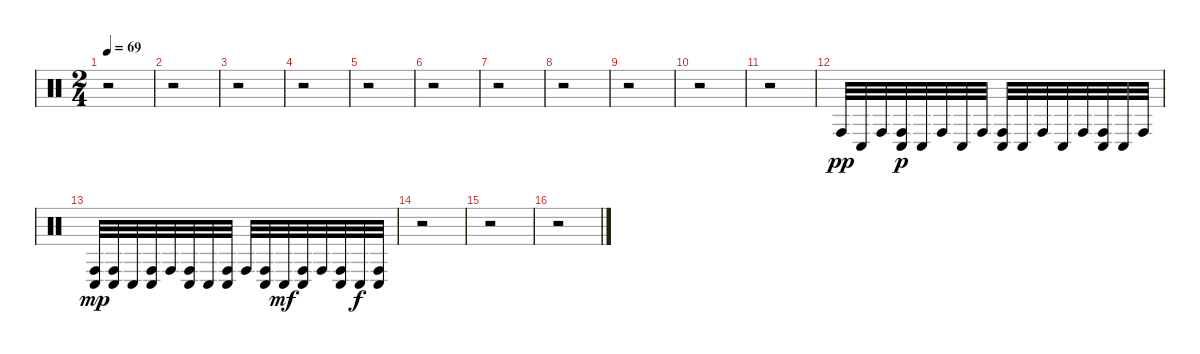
\track "" {instrument percussion}
\staff {score}
\articulation defaults
\ts (2 4)
\tempo 69
\clef neutral
\ks c
r.2{dy f} |
r.2 |
r.2 |
r.2 |
r.2 |
r.2 |
r.2 |
r.2 |
r.2 |
r.2 |
r.2 |
"Conga high (hit)".32{dy pp} "Conga low (hit)".32 "Conga high (hit)".32 ("Conga low (hit)" "Conga high (hit)").32{dy p} "Conga low (hit)".32 "Conga high (hit)".32 "Conga low (hit)".32 "Conga high (hit)".32 ("Conga low (hit)" "Conga high (hit)").32 "Conga low (hit)".32 "Conga high (hit)".32 "Conga low (hit)".32 "Conga high (hit)".32 ("Conga low (hit)" "Conga high (hit)").32 "Conga low (hit)".32 "Conga high (hit)".32 |
("Conga low (hit)" "Conga high (hit)").32{dy mp} ("Conga low (hit)" "Conga high (hit)").32 "Conga low (hit)".32 ("Conga high (hit)" "Conga low (hit)").32 "Conga high (hit)".32 ("Conga low (hit)" "Conga high (hit)").32 "Conga low (hit)".32 ("Conga high (hit)" "Conga low (hit)").32 "Conga high (hit)".32 ("Conga low (hit)" "Conga high (hit)").32 "Conga low (hit)".32{dy mf} ("Conga high (hit)" "Conga low (hit)").32 "Conga high (hit)".32 ("Conga low (hit)" "Conga high (hit)").32 "Conga low (hit)".32{dy f} ("Conga high (hit)" "Conga low (hit)").32 |
r.2 |
r.2 |
r.2
